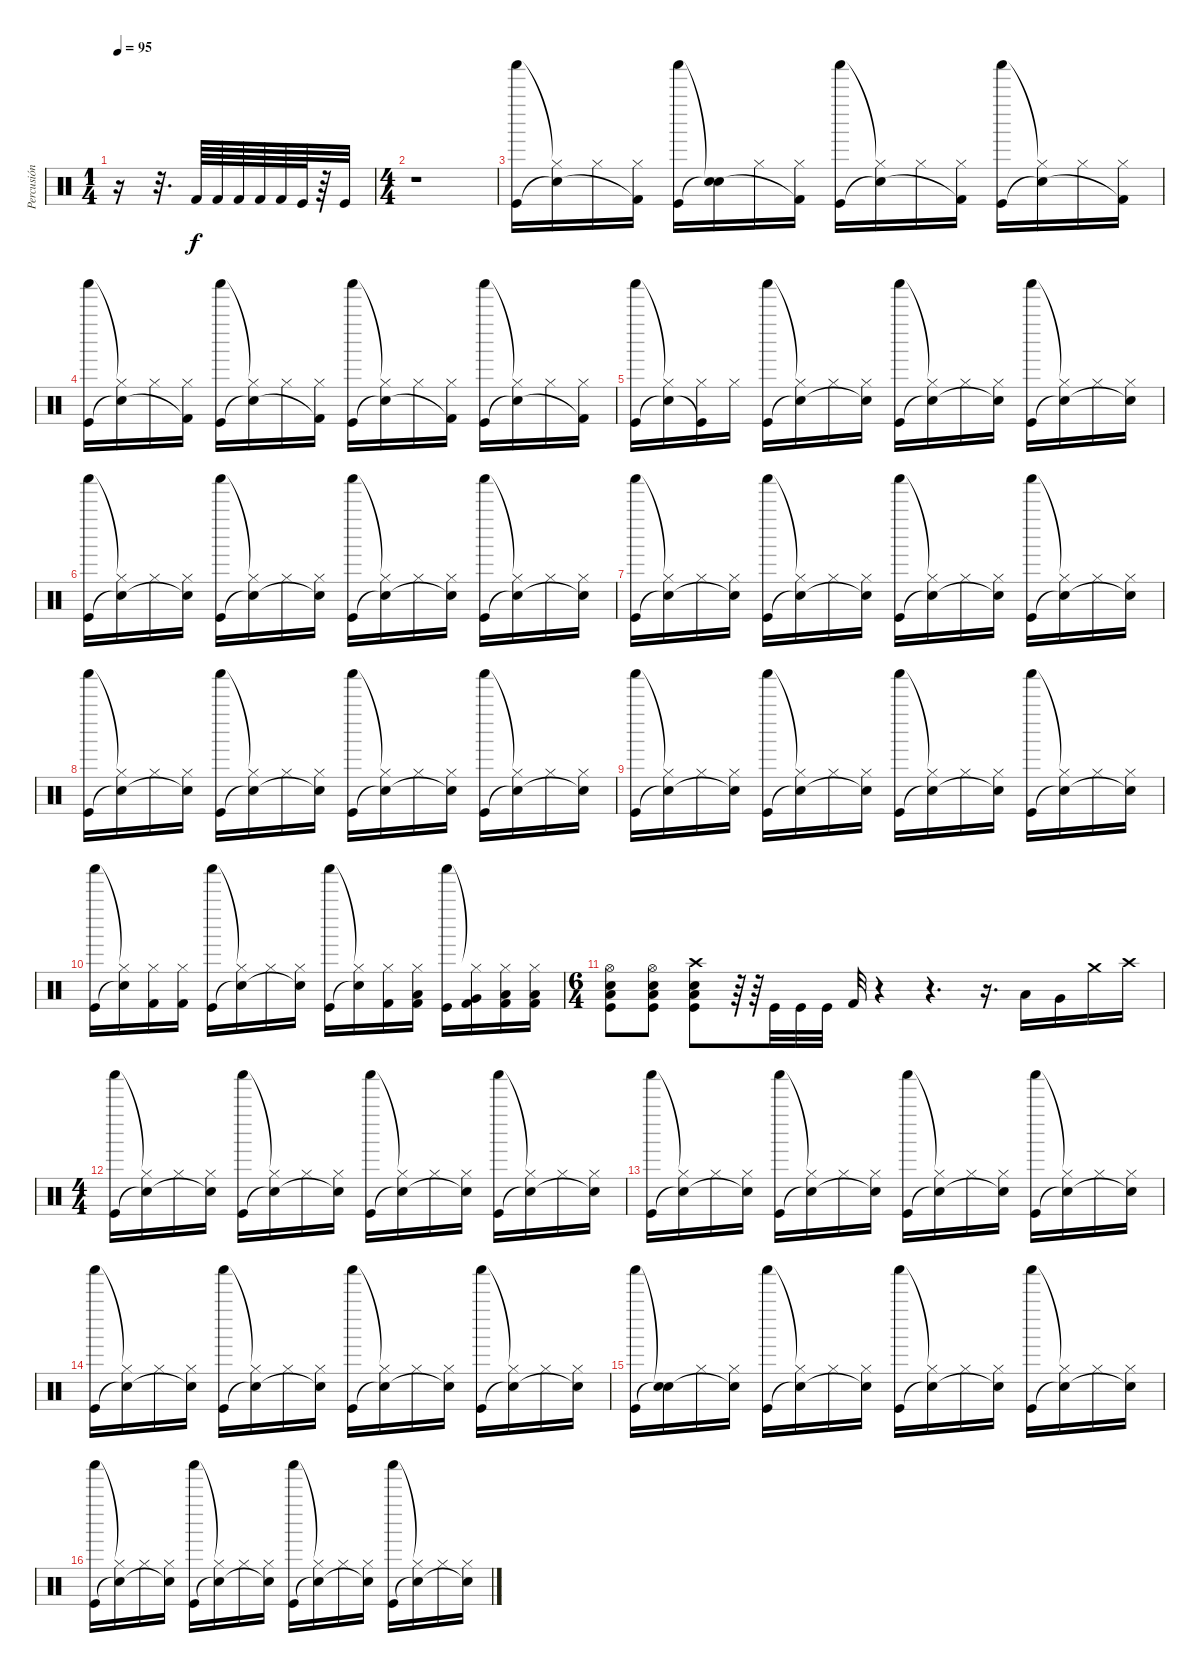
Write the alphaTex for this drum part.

\track ("Percusión" "Percusión") {instrument percussion}
\staff {score}
\articulation defaults
\ts (1 4)
\tempo 95
\clef neutral
\ks c
r.16{dy f} r.32{d} "Kick (hit) 2".64 "Kick (hit) 2".64 "Kick (hit) 2".64 "Kick (hit) 2".64 "Kick (hit) 2".64 "Kick (hit)".64 r.64 "Kick (hit)".32 |
\ts (4 4)
r.1 |
("Shaker (hit)" "Kick (hit)").16 ("Hi-Hat (closed)"{t} "Snare (hit)"{t}).16 "Hi-Hat (closed)".16 ("Hi-Hat (closed)" "Kick (hit) 2"{t}).16 ("Shaker (hit)" "Kick (hit)").16 ("Snare (hit)"{t} "Snare (hit)"{t}).16 "Hi-Hat (closed)".16 ("Hi-Hat (closed)" "Kick (hit) 2"{t}).16 ("Shaker (hit)" "Kick (hit)").16 ("Hi-Hat (closed)"{t} "Snare (hit)"{t}).16 "Hi-Hat (closed)".16 ("Hi-Hat (closed)" "Kick (hit) 2"{t}).16 ("Shaker (hit)" "Kick (hit)").16 ("Hi-Hat (closed)"{t} "Snare (hit)"{t}).16 "Hi-Hat (closed)".16 ("Hi-Hat (closed)" "Kick (hit) 2"{t}).16 |
("Shaker (hit)" "Kick (hit)").16 ("Hi-Hat (closed)"{t} "Snare (hit)"{t}).16 "Hi-Hat (closed)".16 ("Hi-Hat (closed)" "Kick (hit) 2"{t}).16 ("Shaker (hit)" "Kick (hit)").16 ("Hi-Hat (closed)"{t} "Snare (hit)"{t}).16 "Hi-Hat (closed)".16 ("Hi-Hat (closed)" "Kick (hit) 2"{t}).16 ("Shaker (hit)" "Kick (hit)").16 ("Hi-Hat (closed)"{t} "Snare (hit)"{t}).16 "Hi-Hat (closed)".16 ("Hi-Hat (closed)" "Kick (hit) 2"{t}).16 ("Shaker (hit)" "Kick (hit)").16 ("Hi-Hat (closed)"{t} "Snare (hit)"{t}).16 "Hi-Hat (closed)".16 ("Hi-Hat (closed)" "Kick (hit) 2"{t}).16 |
("Shaker (hit)" "Kick (hit)").16 ("Hi-Hat (closed)"{t} "Snare (hit)"{t}).16 ("Hi-Hat (closed)" "Kick (hit)"{t}).16 "Hi-Hat (closed)".16 ("Shaker (hit)" "Kick (hit)").16 ("Hi-Hat (closed)"{t} "Snare (hit)"{t}).16 "Hi-Hat (closed)".16 ("Hi-Hat (closed)" "Snare (hit)"{t}).16 ("Shaker (hit)" "Kick (hit)").16 ("Hi-Hat (closed)"{t} "Snare (hit)"{t}).16 "Hi-Hat (closed)".16 ("Hi-Hat (closed)" "Snare (hit)"{t}).16 ("Shaker (hit)" "Kick (hit)").16 ("Hi-Hat (closed)"{t} "Snare (hit)"{t}).16 "Hi-Hat (closed)".16 ("Hi-Hat (closed)" "Snare (hit)"{t}).16 |
("Shaker (hit)" "Kick (hit)").16 ("Hi-Hat (closed)"{t} "Snare (hit)"{t}).16 "Hi-Hat (closed)".16 ("Hi-Hat (closed)" "Snare (hit)"{t}).16 ("Shaker (hit)" "Kick (hit)").16 ("Hi-Hat (closed)"{t} "Snare (hit)"{t}).16 "Hi-Hat (closed)".16 ("Hi-Hat (closed)" "Snare (hit)"{t}).16 ("Shaker (hit)" "Kick (hit)").16 ("Hi-Hat (closed)"{t} "Snare (hit)"{t}).16 "Hi-Hat (closed)".16 ("Hi-Hat (closed)" "Snare (hit)"{t}).16 ("Shaker (hit)" "Kick (hit)").16 ("Hi-Hat (closed)"{t} "Snare (hit)"{t}).16 "Hi-Hat (closed)".16 ("Hi-Hat (closed)" "Snare (hit)"{t}).16 |
("Shaker (hit)" "Kick (hit)").16 ("Hi-Hat (closed)"{t} "Snare (hit)"{t}).16 "Hi-Hat (closed)".16 ("Hi-Hat (closed)" "Snare (hit)"{t}).16 ("Shaker (hit)" "Kick (hit)").16 ("Hi-Hat (closed)"{t} "Snare (hit)"{t}).16 "Hi-Hat (closed)".16 ("Hi-Hat (closed)" "Snare (hit)"{t}).16 ("Shaker (hit)" "Kick (hit)").16 ("Hi-Hat (closed)"{t} "Snare (hit)"{t}).16 "Hi-Hat (closed)".16 ("Hi-Hat (closed)" "Snare (hit)"{t}).16 ("Shaker (hit)" "Kick (hit)").16 ("Hi-Hat (closed)"{t} "Snare (hit)"{t}).16 "Hi-Hat (closed)".16 ("Hi-Hat (closed)" "Snare (hit)"{t}).16 |
("Shaker (hit)" "Kick (hit)").16 ("Hi-Hat (closed)"{t} "Snare (hit)"{t}).16 "Hi-Hat (closed)".16 ("Hi-Hat (closed)" "Snare (hit)"{t}).16 ("Shaker (hit)" "Kick (hit)").16 ("Hi-Hat (closed)"{t} "Snare (hit)"{t}).16 "Hi-Hat (closed)".16 ("Hi-Hat (closed)" "Snare (hit)"{t}).16 ("Shaker (hit)" "Kick (hit)").16 ("Hi-Hat (closed)"{t} "Snare (hit)"{t}).16 "Hi-Hat (closed)".16 ("Hi-Hat (closed)" "Snare (hit)"{t}).16 ("Shaker (hit)" "Kick (hit)").16 ("Hi-Hat (closed)"{t} "Snare (hit)"{t}).16 "Hi-Hat (closed)".16 ("Hi-Hat (closed)" "Snare (hit)"{t}).16 |
("Shaker (hit)" "Kick (hit)").16 ("Hi-Hat (closed)"{t} "Snare (hit)"{t}).16 "Hi-Hat (closed)".16 ("Hi-Hat (closed)" "Snare (hit)"{t}).16 ("Shaker (hit)" "Kick (hit)").16 ("Hi-Hat (closed)"{t} "Snare (hit)"{t}).16 "Hi-Hat (closed)".16 ("Hi-Hat (closed)" "Snare (hit)"{t}).16 ("Shaker (hit)" "Kick (hit)").16 ("Hi-Hat (closed)"{t} "Snare (hit)"{t}).16 "Hi-Hat (closed)".16 ("Hi-Hat (closed)" "Snare (hit)"{t}).16 ("Shaker (hit)" "Kick (hit)").16 ("Hi-Hat (closed)"{t} "Snare (hit)"{t}).16 "Hi-Hat (closed)".16 ("Hi-Hat (closed)" "Snare (hit)"{t}).16 |
("Shaker (hit)" "Kick (hit)").16 ("Hi-Hat (closed)"{t} "Snare (hit)"{t}).16 ("Hi-Hat (closed)" "Kick (hit) 2").16 ("Hi-Hat (closed)" "Kick (hit) 2").16 ("Shaker (hit)" "Kick (hit)").16 ("Hi-Hat (closed)"{t} "Snare (hit)"{t}).16 "Hi-Hat (closed)".16 ("Hi-Hat (closed)" "Snare (hit)"{t}).16 ("Shaker (hit)" "Kick (hit)").16 ("Hi-Hat (closed)"{t} "Snare (hit)"{t}).16 ("Hi-Hat (closed)" "Kick (hit) 2").16 ("Hi-Hat (closed)" "Low Tom (hit)" "Kick (hit) 2").16 ("Shaker (hit)" "Kick (hit)").16 ("Hi-Hat (closed)"{t} "Very Low Tom (hit)" "Kick (hit) 2").16 ("Hi-Hat (closed)" "Low Floor Tom (hit)" "Kick (hit) 2").16 ("Hi-Hat (closed)" "Low Tom (hit)" "Kick (hit) 2").16 |
\ts (6 4)
("Hi-Hat (open)" "Low Tom (hit)" "Snare (hit) 2" "Kick (hit)").8 ("Hi-Hat (open)" "Low Tom (hit)" "Snare (hit) 2" "Kick (hit)").8 ("Crash high (hit)" "Low Tom (hit)" "Snare (hit) 2" "Kick (hit)").8 r.64 r.64 "Kick (hit)".32 "Kick (hit)".32 "Kick (hit)".32 "Kick (hit) 2".32 r.4 r.4{d} r.16{d} "Low Tom (hit)".16 "Very Low Tom (hit)".16 "Crash medium (hit)".16 "Crash high (hit)".16 |
\ts (4 4)
("Shaker (hit)" "Kick (hit)").16 ("Hi-Hat (closed)"{t} "Snare (hit)"{t}).16 "Hi-Hat (closed)".16 ("Hi-Hat (closed)" "Snare (hit)"{t}).16 ("Shaker (hit)" "Kick (hit)").16 ("Hi-Hat (closed)"{t} "Snare (hit)"{t}).16 "Hi-Hat (closed)".16 ("Hi-Hat (closed)" "Snare (hit)"{t}).16 ("Shaker (hit)" "Kick (hit)").16 ("Hi-Hat (closed)"{t} "Snare (hit)"{t}).16 "Hi-Hat (closed)".16 ("Hi-Hat (closed)" "Snare (hit)"{t}).16 ("Shaker (hit)" "Kick (hit)").16 ("Hi-Hat (closed)"{t} "Snare (hit)"{t}).16 "Hi-Hat (closed)".16 ("Hi-Hat (closed)" "Snare (hit)"{t}).16 |
("Shaker (hit)" "Kick (hit)").16 ("Hi-Hat (closed)"{t} "Snare (hit)"{t}).16 "Hi-Hat (closed)".16 ("Hi-Hat (closed)" "Snare (hit)"{t}).16 ("Shaker (hit)" "Kick (hit)").16 ("Hi-Hat (closed)"{t} "Snare (hit)"{t}).16 "Hi-Hat (closed)".16 ("Hi-Hat (closed)" "Snare (hit)"{t}).16 ("Shaker (hit)" "Kick (hit)").16 ("Hi-Hat (closed)"{t} "Snare (hit)"{t}).16 "Hi-Hat (closed)".16 ("Hi-Hat (closed)" "Snare (hit)"{t}).16 ("Shaker (hit)" "Kick (hit)").16 ("Hi-Hat (closed)"{t} "Snare (hit)"{t}).16 "Hi-Hat (closed)".16 ("Hi-Hat (closed)" "Snare (hit)"{t}).16 |
("Shaker (hit)" "Kick (hit)").16 ("Hi-Hat (closed)"{t} "Snare (hit)"{t}).16 "Hi-Hat (closed)".16 ("Hi-Hat (closed)" "Snare (hit)"{t}).16 ("Shaker (hit)" "Kick (hit)").16 ("Hi-Hat (closed)"{t} "Snare (hit)"{t}).16 "Hi-Hat (closed)".16 ("Hi-Hat (closed)" "Snare (hit)"{t}).16 ("Shaker (hit)" "Kick (hit)").16 ("Hi-Hat (closed)"{t} "Snare (hit)"{t}).16 "Hi-Hat (closed)".16 ("Hi-Hat (closed)" "Snare (hit)"{t}).16 ("Shaker (hit)" "Kick (hit)").16 ("Hi-Hat (closed)"{t} "Snare (hit)"{t}).16 "Hi-Hat (closed)".16 ("Hi-Hat (closed)" "Snare (hit)"{t}).16 |
("Shaker (hit)" "Kick (hit)").16 ("Snare (hit)"{t} "Snare (hit)"{t}).16 "Hi-Hat (closed)".16 ("Hi-Hat (closed)" "Snare (hit)"{t}).16 ("Shaker (hit)" "Kick (hit)").16 ("Hi-Hat (closed)"{t} "Snare (hit)"{t}).16 "Hi-Hat (closed)".16 ("Hi-Hat (closed)" "Snare (hit)"{t}).16 ("Shaker (hit)" "Kick (hit)").16 ("Hi-Hat (closed)"{t} "Snare (hit)"{t}).16 "Hi-Hat (closed)".16 ("Hi-Hat (closed)" "Snare (hit)"{t}).16 ("Shaker (hit)" "Kick (hit)").16 ("Hi-Hat (closed)"{t} "Snare (hit)"{t}).16 "Hi-Hat (closed)".16 ("Hi-Hat (closed)" "Snare (hit)"{t}).16 |
("Shaker (hit)" "Kick (hit)").16 ("Hi-Hat (closed)"{t} "Snare (hit)"{t}).16 "Hi-Hat (closed)".16 ("Hi-Hat (closed)" "Snare (hit)"{t}).16 ("Shaker (hit)" "Kick (hit)").16 ("Hi-Hat (closed)"{t} "Snare (hit)"{t}).16 "Hi-Hat (closed)".16 ("Hi-Hat (closed)" "Snare (hit)"{t}).16 ("Shaker (hit)" "Kick (hit)").16 ("Hi-Hat (closed)"{t} "Snare (hit)"{t}).16 "Hi-Hat (closed)".16 ("Hi-Hat (closed)" "Snare (hit)"{t}).16 ("Shaker (hit)" "Kick (hit)").16 ("Hi-Hat (closed)"{t} "Snare (hit)"{t}).16 "Hi-Hat (closed)".16 ("Hi-Hat (closed)" "Snare (hit)"{t}).16
